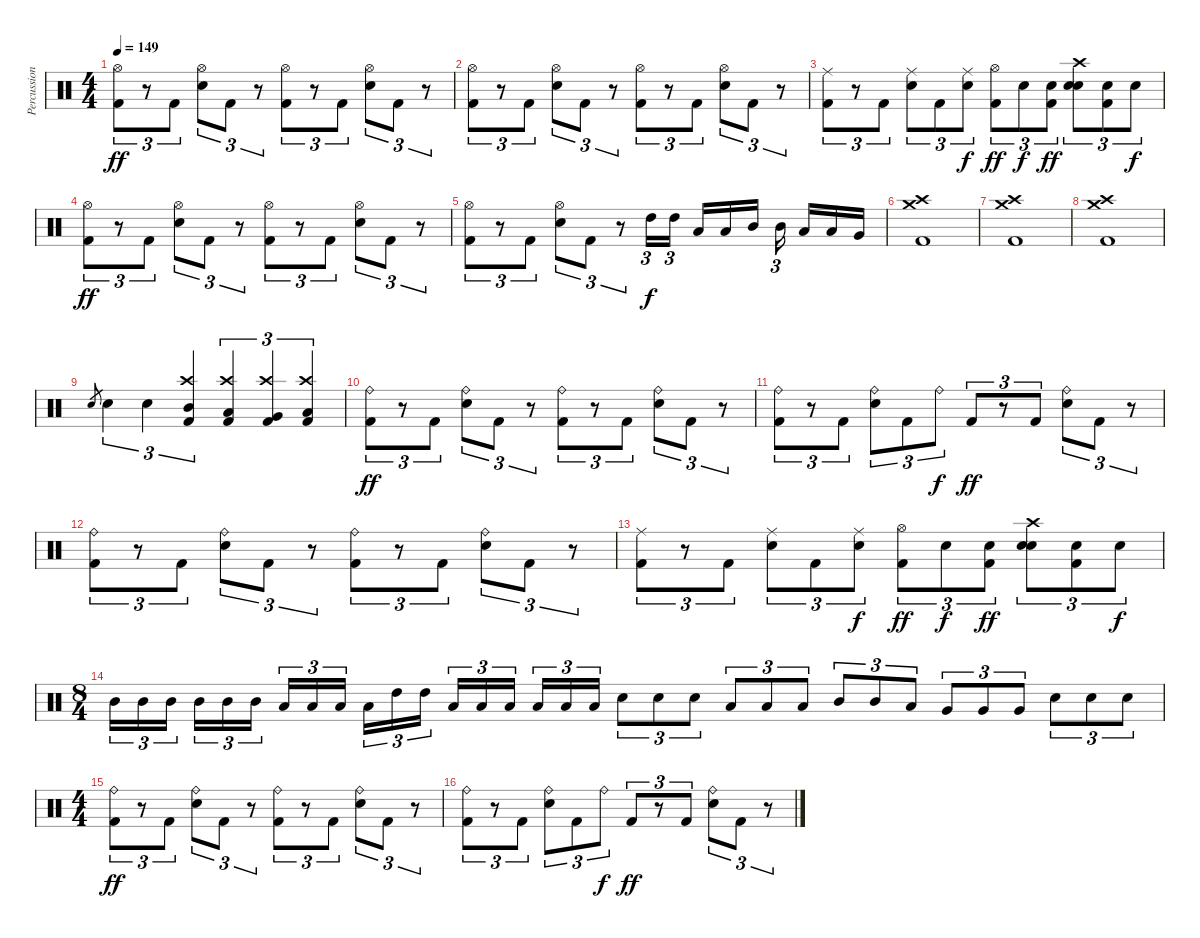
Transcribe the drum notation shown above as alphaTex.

\track ("Percussion" "Percussion") {instrument percussion}
\staff {score}
\articulation defaults
\ts (4 4)
\tempo 149
\clef neutral
\ks c
("Kick (hit) 2" "Hi-Hat (open)").8{tu (3 2) dy ff} r.8{tu (3 2)} "Kick (hit) 2".8{tu (3 2)} ("Snare (hit) 2" "Hi-Hat (open)").8{tu (3 2)} "Kick (hit) 2".8{tu (3 2)} r.8{tu (3 2)} ("Kick (hit) 2" "Hi-Hat (open)").8{tu (3 2)} r.8{tu (3 2)} "Kick (hit) 2".8{tu (3 2)} ("Snare (hit) 2" "Hi-Hat (open)").8{tu (3 2)} "Kick (hit) 2".8{tu (3 2)} r.8{tu (3 2)} |
("Kick (hit) 2" "Hi-Hat (open)").8{tu (3 2)} r.8{tu (3 2)} "Kick (hit) 2".8{tu (3 2)} ("Snare (hit) 2" "Hi-Hat (open)").8{tu (3 2)} "Kick (hit) 2".8{tu (3 2)} r.8{tu (3 2)} ("Kick (hit) 2" "Hi-Hat (open)").8{tu (3 2)} r.8{tu (3 2)} "Kick (hit) 2".8{tu (3 2)} ("Snare (hit) 2" "Hi-Hat (open)").8{tu (3 2)} "Kick (hit) 2".8{tu (3 2)} r.8{tu (3 2)} |
("Kick (hit) 2" "Ride (middle)").8{tu (3 2)} r.8{tu (3 2)} "Kick (hit) 2".8{tu (3 2)} ("Electric Snare (hit)" "Ride (middle)").8{tu (3 2)} "Kick (hit) 2".8{tu (3 2)} ("Electric Snare (hit)" "Ride (middle)").8{tu (3 2) dy f} ("Kick (hit) 2" "Hi-Hat (open)").8{tu (3 2) dy ff} "Electric Snare (hit)".8{tu (3 2) dy f} ("Kick (hit) 2" "Electric Snare (hit)").8{tu (3 2) dy ff} ("Snare (hit) 2" "Electric Snare (hit)" "Crash high (hit)").8{tu (3 2)} ("Kick (hit) 2" "Electric Snare (hit)").8{tu (3 2)} "Electric Snare (hit)".8{tu (3 2) dy f} |
("Kick (hit) 2" "Hi-Hat (open)").8{tu (3 2) dy ff} r.8{tu (3 2)} "Kick (hit) 2".8{tu (3 2)} ("Snare (hit) 2" "Hi-Hat (open)").8{tu (3 2)} "Kick (hit) 2".8{tu (3 2)} r.8{tu (3 2)} ("Kick (hit) 2" "Hi-Hat (open)").8{tu (3 2)} r.8{tu (3 2)} "Kick (hit) 2".8{tu (3 2)} ("Snare (hit) 2" "Hi-Hat (open)").8{tu (3 2)} "Kick (hit) 2".8{tu (3 2)} r.8{tu (3 2)} |
("Kick (hit) 2" "Hi-Hat (open)").8{tu (3 2)} r.8{tu (3 2)} "Kick (hit) 2".8{tu (3 2)} ("Snare (hit) 2" "Hi-Hat (open)").8{tu (3 2)} "Kick (hit) 2".8{tu (3 2)} r.8{tu (3 2)} "High Tom (hit)".16{tu (3 2) dy f} "High Tom (hit)".16{tu (3 2) beam splitsecondary} "Low Tom (hit)".16 "Low Tom (hit)".16 "Mid Tom (hit)".16 "Mid Tom (hit)".16{tu (3 2) beam splitsecondary} "Low Tom (hit)".16 "Low Tom (hit)".16 "Very Low Tom (hit)".16 |
("Crash medium (hit)" "Crash high (hit)" "Kick (hit) 2").1 |
("Crash medium (hit)" "Crash high (hit)" "Kick (hit) 2").1 |
("Crash medium (hit)" "Crash high (hit)" "Kick (hit) 2").1 |
"Electric Snare (hit)".8{gr} "Electric Snare (hit)".4{tu (3 2)} "Electric Snare (hit)".4{tu (3 2)} ("Mid Tom (hit)" "Kick (hit) 2" "Crash high (hit)").4{tu (3 2)} ("Low Tom (hit)" "Kick (hit) 2" "Crash high (hit)").4{tu (3 2)} ("Very Low Tom (hit)" "Kick (hit) 2" "Crash high (hit)").4{tu (3 2)} ("Low Tom (hit)" "Kick (hit) 2" "Crash high (hit)").4{tu (3 2)} |
("Kick (hit) 2" "Ride (bell)").8{tu (3 2) dy ff} r.8{tu (3 2)} "Kick (hit) 2".8{tu (3 2)} ("Snare (hit) 2" "Ride (bell)").8{tu (3 2)} "Kick (hit) 2".8{tu (3 2)} r.8{tu (3 2)} ("Kick (hit) 2" "Ride (bell)").8{tu (3 2)} r.8{tu (3 2)} "Kick (hit) 2".8{tu (3 2)} ("Snare (hit) 2" "Ride (bell)").8{tu (3 2)} "Kick (hit) 2".8{tu (3 2)} r.8{tu (3 2)} |
("Kick (hit) 2" "Ride (bell)").8{tu (3 2)} r.8{tu (3 2)} "Kick (hit) 2".8{tu (3 2)} ("Electric Snare (hit)" "Ride (bell)").8{tu (3 2)} "Kick (hit) 2".8{tu (3 2)} "Ride (bell)".8{tu (3 2) dy f} "Kick (hit) 2".8{tu (3 2) dy ff} r.8{tu (3 2)} "Kick (hit) 2".8{tu (3 2)} ("Electric Snare (hit)" "Ride (bell)").8{tu (3 2)} "Kick (hit) 2".8{tu (3 2)} r.8{tu (3 2)} |
("Kick (hit) 2" "Ride (bell)").8{tu (3 2)} r.8{tu (3 2)} "Kick (hit) 2".8{tu (3 2)} ("Snare (hit) 2" "Ride (bell)").8{tu (3 2)} "Kick (hit) 2".8{tu (3 2)} r.8{tu (3 2)} ("Kick (hit) 2" "Ride (bell)").8{tu (3 2)} r.8{tu (3 2)} "Kick (hit) 2".8{tu (3 2)} ("Snare (hit) 2" "Ride (bell)").8{tu (3 2)} "Kick (hit) 2".8{tu (3 2)} r.8{tu (3 2)} |
("Kick (hit) 2" "Ride (middle)").8{tu (3 2)} r.8{tu (3 2)} "Kick (hit) 2".8{tu (3 2)} ("Electric Snare (hit)" "Ride (middle)").8{tu (3 2)} "Kick (hit) 2".8{tu (3 2)} ("Electric Snare (hit)" "Ride (middle)").8{tu (3 2) dy f} ("Kick (hit) 2" "Hi-Hat (open)").8{tu (3 2) dy ff} "Electric Snare (hit)".8{tu (3 2) dy f} ("Kick (hit) 2" "Electric Snare (hit)").8{tu (3 2) dy ff} ("Snare (hit) 2" "Electric Snare (hit)" "Crash high (hit)").8{tu (3 2)} ("Kick (hit) 2" "Electric Snare (hit)").8{tu (3 2)} "Electric Snare (hit)".8{tu (3 2) dy f} |
\ts (8 4)
"Mid Tom (hit)".16{tu (3 2)} "Mid Tom (hit)".16{tu (3 2)} "Mid Tom (hit)".16{tu (3 2) beam splitsecondary} "Mid Tom (hit)".16{tu (3 2)} "Mid Tom (hit)".16{tu (3 2)} "Mid Tom (hit)".16{tu (3 2)} "Low Tom (hit)".16{tu (3 2)} "Low Tom (hit)".16{tu (3 2)} "Low Tom (hit)".16{tu (3 2) beam splitsecondary} "Low Tom (hit)".16{tu (3 2)} "High Tom (hit)".16{tu (3 2)} "High Tom (hit)".16{tu (3 2)} "Low Tom (hit)".16{tu (3 2)} "Low Tom (hit)".16{tu (3 2)} "Low Tom (hit)".16{tu (3 2) beam splitsecondary} "Low Tom (hit)".16{tu (3 2)} "Low Tom (hit)".16{tu (3 2)} "Low Floor Tom (hit)".16{tu (3 2)} "Electric Snare (hit)".8{tu (3 2)} "Electric Snare (hit)".8{tu (3 2)} "Electric Snare (hit)".8{tu (3 2)} "Low Tom (hit)".8{tu (3 2)} "Low Tom (hit)".8{tu (3 2)} "Low Tom (hit)".8{tu (3 2)} "Mid Tom (hit)".8{tu (3 2)} "Mid Tom (hit)".8{tu (3 2)} "Low Tom (hit)".8{tu (3 2)} "Very Low Tom (hit)".8{tu (3 2)} "Very Low Tom (hit)".8{tu (3 2)} "Very Low Tom (hit)".8{tu (3 2)} "Electric Snare (hit)".8{tu (3 2)} "Electric Snare (hit)".8{tu (3 2)} "Electric Snare (hit)".8{tu (3 2)} |
\ts (4 4)
("Kick (hit) 2" "Ride (bell)").8{tu (3 2) dy ff} r.8{tu (3 2)} "Kick (hit) 2".8{tu (3 2)} ("Snare (hit) 2" "Ride (bell)").8{tu (3 2)} "Kick (hit) 2".8{tu (3 2)} r.8{tu (3 2)} ("Kick (hit) 2" "Ride (bell)").8{tu (3 2)} r.8{tu (3 2)} "Kick (hit) 2".8{tu (3 2)} ("Snare (hit) 2" "Ride (bell)").8{tu (3 2)} "Kick (hit) 2".8{tu (3 2)} r.8{tu (3 2)} |
("Kick (hit) 2" "Ride (bell)").8{tu (3 2)} r.8{tu (3 2)} "Kick (hit) 2".8{tu (3 2)} ("Electric Snare (hit)" "Ride (bell)").8{tu (3 2)} "Kick (hit) 2".8{tu (3 2)} "Ride (bell)".8{tu (3 2) dy f} "Kick (hit) 2".8{tu (3 2) dy ff} r.8{tu (3 2)} "Kick (hit) 2".8{tu (3 2)} ("Electric Snare (hit)" "Ride (bell)").8{tu (3 2)} "Kick (hit) 2".8{tu (3 2)} r.8{tu (3 2)}
